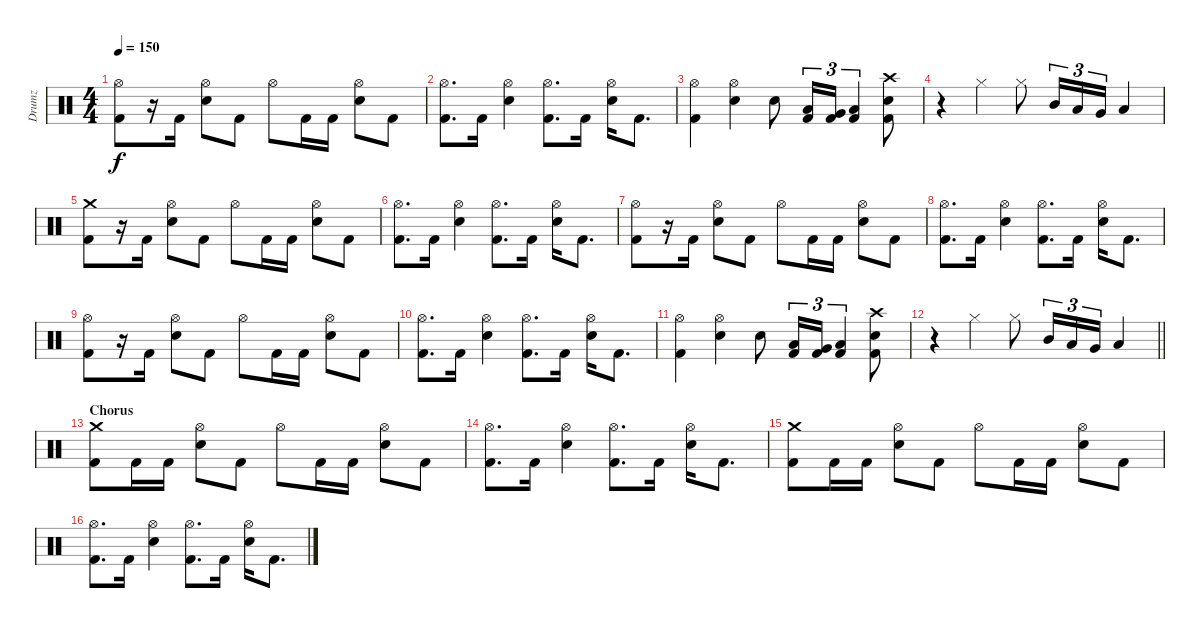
\track ("Drumz" "Drumz") {instrument percussion}
\staff {score}
\articulation defaults
\ts (4 4)
\tempo 150
\clef neutral
\ks c
("Hi-Hat (open)" "Kick (hit) 2").8{dy f} r.16 "Kick (hit) 2".16 ("Hi-Hat (open)" "Electric Snare (hit)").8 "Kick (hit) 2".8 "Hi-Hat (open)".8 "Kick (hit) 2".16 "Kick (hit) 2".16 ("Hi-Hat (open)" "Electric Snare (hit)").8 "Kick (hit) 2".8 |
("Hi-Hat (open)" "Kick (hit) 2").8{d} "Kick (hit) 2".16 ("Hi-Hat (open)" "Electric Snare (hit)").4 ("Hi-Hat (open)" "Kick (hit) 2").8{d} "Kick (hit) 2".16 ("Hi-Hat (open)" "Electric Snare (hit)").16 "Kick (hit) 2".8{d} |
("Hi-Hat (open)" "Kick (hit) 2").4 ("Hi-Hat (open)" "Electric Snare (hit)").4 "Electric Snare (hit)".8 ("Low Tom (hit)" "Kick (hit) 2").16{tu (3 2)} ("Very Low Tom (hit)" "Kick (hit) 2").16{tu (3 2)} ("Low Floor Tom (hit)" "Kick (hit) 2").4{tu (3 2)} ("Crash high (hit)" "Electric Snare (hit)" "Kick (hit) 2").8 |
r.4 "Hi-Hat (closed)".4 "Hi-Hat (closed)".8 "Mid Tom (hit)".16{tu (3 2)} "Low Tom (hit)".16{tu (3 2)} "Very Low Tom (hit)".16{tu (3 2)} "Low Floor Tom (hit)".4 |
("Crash medium (hit)" "Kick (hit) 2").8 r.16 "Kick (hit) 2".16 ("Hi-Hat (open)" "Electric Snare (hit)").8 "Kick (hit) 2".8 "Hi-Hat (open)".8 "Kick (hit) 2".16 "Kick (hit) 2".16 ("Hi-Hat (open)" "Electric Snare (hit)").8 "Kick (hit) 2".8 |
("Hi-Hat (open)" "Kick (hit) 2").8{d} "Kick (hit) 2".16 ("Hi-Hat (open)" "Electric Snare (hit)").4 ("Hi-Hat (open)" "Kick (hit) 2").8{d} "Kick (hit) 2".16 ("Hi-Hat (open)" "Electric Snare (hit)").16 "Kick (hit) 2".8{d} |
("Hi-Hat (open)" "Kick (hit) 2").8 r.16 "Kick (hit) 2".16 ("Hi-Hat (open)" "Electric Snare (hit)").8 "Kick (hit) 2".8 "Hi-Hat (open)".8 "Kick (hit) 2".16 "Kick (hit) 2".16 ("Hi-Hat (open)" "Electric Snare (hit)").8 "Kick (hit) 2".8 |
("Hi-Hat (open)" "Kick (hit) 2").8{d} "Kick (hit) 2".16 ("Hi-Hat (open)" "Electric Snare (hit)").4 ("Hi-Hat (open)" "Kick (hit) 2").8{d} "Kick (hit) 2".16 ("Hi-Hat (open)" "Electric Snare (hit)").16 "Kick (hit) 2".8{d} |
("Hi-Hat (open)" "Kick (hit) 2").8 r.16 "Kick (hit) 2".16 ("Hi-Hat (open)" "Electric Snare (hit)").8 "Kick (hit) 2".8 "Hi-Hat (open)".8 "Kick (hit) 2".16 "Kick (hit) 2".16 ("Hi-Hat (open)" "Electric Snare (hit)").8 "Kick (hit) 2".8 |
("Hi-Hat (open)" "Kick (hit) 2").8{d} "Kick (hit) 2".16 ("Hi-Hat (open)" "Electric Snare (hit)").4 ("Hi-Hat (open)" "Kick (hit) 2").8{d} "Kick (hit) 2".16 ("Hi-Hat (open)" "Electric Snare (hit)").16 "Kick (hit) 2".8{d} |
("Hi-Hat (open)" "Kick (hit) 2").4 ("Hi-Hat (open)" "Electric Snare (hit)").4 "Electric Snare (hit)".8 ("Low Tom (hit)" "Kick (hit) 2").16{tu (3 2)} ("Very Low Tom (hit)" "Kick (hit) 2").16{tu (3 2)} ("Low Floor Tom (hit)" "Kick (hit) 2").4{tu (3 2)} ("Crash high (hit)" "Electric Snare (hit)" "Kick (hit) 2").8 |
\barLineRight lightlight
r.4 "Hi-Hat (closed)".4 "Hi-Hat (closed)".8 "Mid Tom (hit)".16{tu (3 2)} "Low Tom (hit)".16{tu (3 2)} "Very Low Tom (hit)".16{tu (3 2)} "Low Floor Tom (hit)".4 |
\section ("" "Chorus")
("Crash medium (hit)" "Kick (hit) 2").8 "Kick (hit) 2".16 "Kick (hit) 2".16 ("Hi-Hat (open)" "Electric Snare (hit)").8 "Kick (hit) 2".8 "Hi-Hat (open)".8 "Kick (hit) 2".16 "Kick (hit) 2".16 ("Hi-Hat (open)" "Electric Snare (hit)").8 "Kick (hit) 2".8 |
("Hi-Hat (open)" "Kick (hit) 2").8{d} "Kick (hit) 2".16 ("Hi-Hat (open)" "Electric Snare (hit)").4 ("Hi-Hat (open)" "Kick (hit) 2").8{d} "Kick (hit) 2".16 ("Hi-Hat (open)" "Electric Snare (hit)").16 "Kick (hit) 2".8{d} |
("Crash medium (hit)" "Kick (hit) 2").8 "Kick (hit) 2".16 "Kick (hit) 2".16 ("Hi-Hat (open)" "Electric Snare (hit)").8 "Kick (hit) 2".8 "Hi-Hat (open)".8 "Kick (hit) 2".16 "Kick (hit) 2".16 ("Hi-Hat (open)" "Electric Snare (hit)").8 "Kick (hit) 2".8 |
("Hi-Hat (open)" "Kick (hit) 2").8{d} "Kick (hit) 2".16 ("Hi-Hat (open)" "Electric Snare (hit)").4 ("Hi-Hat (open)" "Kick (hit) 2").8{d} "Kick (hit) 2".16 ("Hi-Hat (open)" "Electric Snare (hit)").16 "Kick (hit) 2".8{d}
